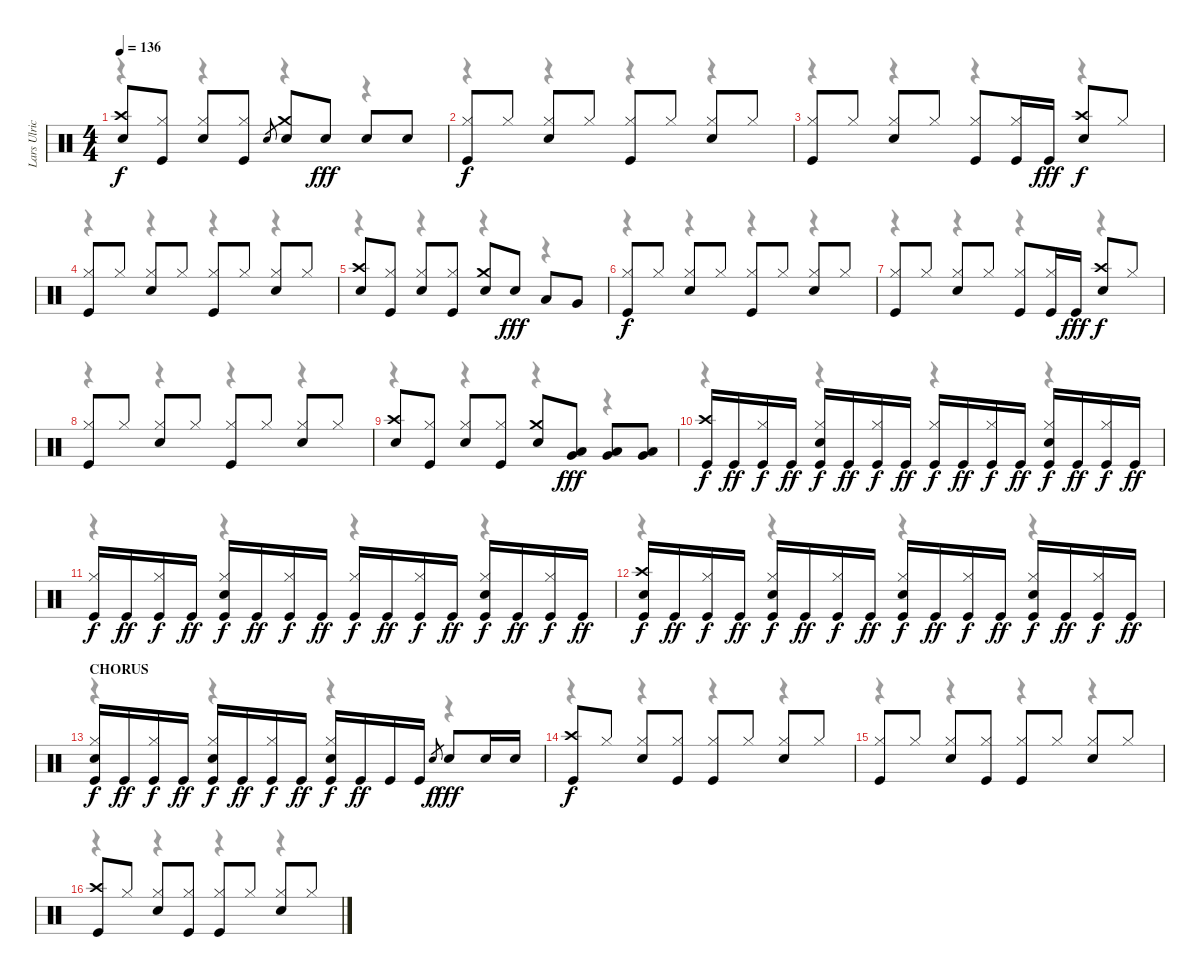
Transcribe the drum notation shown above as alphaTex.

\track ("Lars Ulrich" "Lars Ulric") {instrument percussion}
\staff {score}
\articulation defaults
\voice
\ts (4 4)
\tempo 136
\clef neutral
\ks c
("Crash high (hit)" "Snare (hit) 2").8{dy f} ("Hi-Hat (closed)" "Kick (hit)").8 ("Hi-Hat (closed)" "Snare (hit) 2").8 ("Hi-Hat (closed)" "Kick (hit)").8 "Snare (hit)".8{gr} ("Crash medium (hit)" "Snare (hit) 2").8 "Snare (hit) 2".8{dy fff} "Snare (hit) 2".8 "Snare (hit) 2".8 |
("Hi-Hat (closed)" "Kick (hit)").8{dy f} "Hi-Hat (closed)".8 ("Hi-Hat (closed)" "Snare (hit) 2").8 "Hi-Hat (closed)".8 ("Hi-Hat (closed)" "Kick (hit)").8 "Hi-Hat (closed)".8 ("Hi-Hat (closed)" "Snare (hit) 2").8 "Hi-Hat (closed)".8 |
("Hi-Hat (closed)" "Kick (hit)").8 "Hi-Hat (closed)".8 ("Hi-Hat (closed)" "Snare (hit) 2").8 "Hi-Hat (closed)".8 ("Hi-Hat (closed)" "Kick (hit)").8 ("Hi-Hat (closed)" "Kick (hit)").16 "Kick (hit)".16{dy fff} ("Crash high (hit)" "Snare (hit) 2").8{dy f} "Hi-Hat (closed)".8 |
("Hi-Hat (closed)" "Kick (hit)").8 "Hi-Hat (closed)".8 ("Hi-Hat (closed)" "Snare (hit) 2").8 "Hi-Hat (closed)".8 ("Hi-Hat (closed)" "Kick (hit)").8 "Hi-Hat (closed)".8 ("Hi-Hat (closed)" "Snare (hit) 2").8 "Hi-Hat (closed)".8 |
("Crash high (hit)" "Snare (hit) 2").8 ("Hi-Hat (closed)" "Kick (hit)").8 ("Hi-Hat (closed)" "Snare (hit) 2").8 ("Hi-Hat (closed)" "Kick (hit)").8 ("Crash medium (hit)" "Snare (hit) 2").8 "Snare (hit) 2".8{dy fff} "Low Tom (hit)".8 "Very Low Tom (hit)".8 |
("Hi-Hat (closed)" "Kick (hit)").8{dy f} "Hi-Hat (closed)".8 ("Hi-Hat (closed)" "Snare (hit) 2").8 "Hi-Hat (closed)".8 ("Hi-Hat (closed)" "Kick (hit)").8 "Hi-Hat (closed)".8 ("Hi-Hat (closed)" "Snare (hit) 2").8 "Hi-Hat (closed)".8 |
("Hi-Hat (closed)" "Kick (hit)").8 "Hi-Hat (closed)".8 ("Hi-Hat (closed)" "Snare (hit) 2").8 "Hi-Hat (closed)".8 ("Hi-Hat (closed)" "Kick (hit)").8 ("Hi-Hat (closed)" "Kick (hit)").16 "Kick (hit)".16{dy fff} ("Crash high (hit)" "Snare (hit) 2").8{dy f} "Hi-Hat (closed)".8 |
("Hi-Hat (closed)" "Kick (hit)").8 "Hi-Hat (closed)".8 ("Hi-Hat (closed)" "Snare (hit) 2").8 "Hi-Hat (closed)".8 ("Hi-Hat (closed)" "Kick (hit)").8 "Hi-Hat (closed)".8 ("Hi-Hat (closed)" "Snare (hit) 2").8 "Hi-Hat (closed)".8 |
("Crash high (hit)" "Snare (hit) 2").8 ("Hi-Hat (closed)" "Kick (hit)").8 ("Hi-Hat (closed)" "Snare (hit) 2").8 ("Hi-Hat (closed)" "Kick (hit)").8 ("Crash medium (hit)" "Snare (hit) 2").8 ("Low Tom (hit)" "Very Low Tom (hit)").8{dy fff} ("Low Tom (hit)" "Very Low Tom (hit)").8 ("Low Tom (hit)" "Very Low Tom (hit)").8 |
("Crash high (hit)" "Kick (hit)").16{dy f} "Kick (hit)".16{dy ff} ("Hi-Hat (closed)" "Kick (hit)").16{dy f} "Kick (hit)".16{dy ff} ("Hi-Hat (closed)" "Snare (hit) 2" "Kick (hit)").16{dy f} "Kick (hit)".16{dy ff} ("Hi-Hat (closed)" "Kick (hit)").16{dy f} "Kick (hit)".16{dy ff} ("Hi-Hat (closed)" "Kick (hit)").16{dy f} "Kick (hit)".16{dy ff} ("Hi-Hat (closed)" "Kick (hit)").16{dy f} "Kick (hit)".16{dy ff} ("Hi-Hat (closed)" "Snare (hit) 2" "Kick (hit)").16{dy f} "Kick (hit)".16{dy ff} ("Hi-Hat (closed)" "Kick (hit)").16{dy f} "Kick (hit)".16{dy ff} |
("Hi-Hat (closed)" "Kick (hit)").16{dy f} "Kick (hit)".16{dy ff} ("Hi-Hat (closed)" "Kick (hit)").16{dy f} "Kick (hit)".16{dy ff} ("Hi-Hat (closed)" "Snare (hit) 2" "Kick (hit)").16{dy f} "Kick (hit)".16{dy ff} ("Hi-Hat (closed)" "Kick (hit)").16{dy f} "Kick (hit)".16{dy ff} ("Hi-Hat (closed)" "Kick (hit)").16{dy f} "Kick (hit)".16{dy ff} ("Hi-Hat (closed)" "Kick (hit)").16{dy f} "Kick (hit)".16{dy ff} ("Hi-Hat (closed)" "Snare (hit) 2" "Kick (hit)").16{dy f} "Kick (hit)".16{dy ff} ("Hi-Hat (closed)" "Kick (hit)").16{dy f} "Kick (hit)".16{dy ff} |
("Crash high (hit)" "Snare (hit) 2" "Kick (hit)").16{dy f} "Kick (hit)".16{dy ff} ("Hi-Hat (closed)" "Kick (hit)").16{dy f} "Kick (hit)".16{dy ff} ("Hi-Hat (closed)" "Snare (hit) 2" "Kick (hit)").16{dy f} "Kick (hit)".16{dy ff} ("Hi-Hat (closed)" "Kick (hit)").16{dy f} "Kick (hit)".16{dy ff} ("Hi-Hat (closed)" "Snare (hit) 2" "Kick (hit)").16{dy f} "Kick (hit)".16{dy ff} ("Hi-Hat (closed)" "Kick (hit)").16{dy f} "Kick (hit)".16{dy ff} ("Hi-Hat (closed)" "Snare (hit) 2" "Kick (hit)").16{dy f} "Kick (hit)".16{dy ff} ("Hi-Hat (closed)" "Kick (hit)").16{dy f} "Kick (hit)".16{dy ff} |
\section ("" "CHORUS")
("Hi-Hat (closed)" "Snare (hit) 2" "Kick (hit)").16{dy f} "Kick (hit)".16{dy ff} ("Hi-Hat (closed)" "Kick (hit)").16{dy f} "Kick (hit)".16{dy ff} ("Hi-Hat (closed)" "Snare (hit) 2" "Kick (hit)").16{dy f} "Kick (hit)".16{dy ff} ("Hi-Hat (closed)" "Kick (hit)").16{dy f} "Kick (hit)".16{dy ff} ("Hi-Hat (closed)" "Snare (hit) 2" "Kick (hit)").16{dy f} "Kick (hit)".16{dy ff} "Kick (hit)".16 "Kick (hit)".16 "Snare (hit)".8{gr dy f} "Snare (hit) 2".8{dy fff} "Snare (hit) 2".16 "Snare (hit) 2".16 |
("Crash high (hit)" "Kick (hit)").8{dy f} "Hi-Hat (closed)".8 ("Hi-Hat (closed)" "Snare (hit) 2").8 ("Hi-Hat (closed)" "Kick (hit)").8 ("Hi-Hat (closed)" "Kick (hit)").8 "Hi-Hat (closed)".8 ("Hi-Hat (closed)" "Snare (hit) 2").8 "Hi-Hat (closed)".8 |
("Hi-Hat (closed)" "Kick (hit)").8 "Hi-Hat (closed)".8 ("Hi-Hat (closed)" "Snare (hit) 2").8 ("Hi-Hat (closed)" "Kick (hit)").8 ("Hi-Hat (closed)" "Kick (hit)").8 "Hi-Hat (closed)".8 ("Hi-Hat (closed)" "Snare (hit) 2").8 "Hi-Hat (closed)".8 |
("Crash high (hit)" "Kick (hit)").8 "Hi-Hat (closed)".8 ("Hi-Hat (closed)" "Snare (hit) 2").8 ("Hi-Hat (closed)" "Kick (hit)").8 ("Hi-Hat (closed)" "Kick (hit)").8 "Hi-Hat (closed)".8 ("Hi-Hat (closed)" "Snare (hit) 2").8 "Hi-Hat (closed)".8
\voice
\clef neutral
\ottava regular
\simile none
\ks c
r.4{dy f} r.4 r.4 r.4 |
r.4 r.4 r.4 r.4 |
r.4 r.4 r.4 r.4 |
r.4 r.4 r.4 r.4 |
r.4 r.4 r.4 r.4 |
r.4 r.4 r.4 r.4 |
r.4 r.4 r.4 r.4 |
r.4 r.4 r.4 r.4 |
r.4 r.4 r.4 r.4 |
r.4 r.4 r.4 r.4 |
r.4 r.4 r.4 r.4 |
r.4 r.4 r.4 r.4 |
r.4 r.4 r.4 r.4 |
r.4 r.4 r.4 r.4 |
r.4 r.4 r.4 r.4 |
r.4 r.4 r.4 r.4
